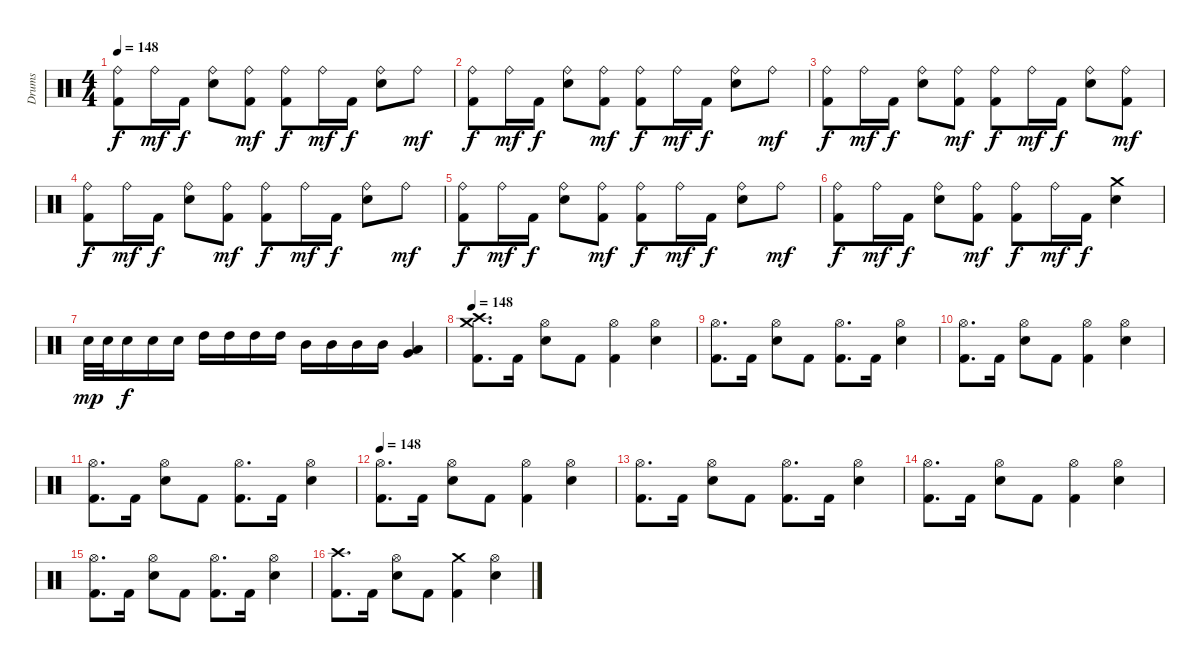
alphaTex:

\track ("Drums" "Drums") {instrument percussion}
\staff {score}
\articulation defaults
\ts (4 4)
\tempo 148
\clef neutral
\ks c
("Ride (bell)" "Kick (hit) 2").8{dy f} "Ride (bell)".16{dy mf} "Kick (hit) 2".16{dy f} ("Ride (bell)" "Snare (hit) 2").8 ("Ride (bell)" "Kick (hit) 2").8{dy mf} ("Ride (bell)" "Kick (hit) 2").8{dy f} "Ride (bell)".16{dy mf} "Kick (hit) 2".16{dy f} ("Ride (bell)" "Snare (hit) 2").8 "Ride (bell)".8{dy mf} |
("Ride (bell)" "Kick (hit) 2").8{dy f} "Ride (bell)".16{dy mf} "Kick (hit) 2".16{dy f} ("Ride (bell)" "Snare (hit) 2").8 ("Ride (bell)" "Kick (hit) 2").8{dy mf} ("Ride (bell)" "Kick (hit) 2").8{dy f} "Ride (bell)".16{dy mf} "Kick (hit) 2".16{dy f} ("Ride (bell)" "Snare (hit) 2").8 "Ride (bell)".8{dy mf} |
("Ride (bell)" "Kick (hit) 2").8{dy f} "Ride (bell)".16{dy mf} "Kick (hit) 2".16{dy f} ("Ride (bell)" "Snare (hit) 2").8 ("Ride (bell)" "Kick (hit) 2").8{dy mf} ("Ride (bell)" "Kick (hit) 2").8{dy f} "Ride (bell)".16{dy mf} "Kick (hit) 2".16{dy f} ("Ride (bell)" "Snare (hit) 2").8 ("Ride (bell)" "Kick (hit) 2").8{dy mf} |
("Ride (bell)" "Kick (hit) 2").8{dy f} "Ride (bell)".16{dy mf} "Kick (hit) 2".16{dy f} ("Ride (bell)" "Snare (hit) 2").8 ("Ride (bell)" "Kick (hit) 2").8{dy mf} ("Ride (bell)" "Kick (hit) 2").8{dy f} "Ride (bell)".16{dy mf} "Kick (hit) 2".16{dy f} ("Ride (bell)" "Snare (hit) 2").8 "Ride (bell)".8{dy mf} |
("Ride (bell)" "Kick (hit) 2").8{dy f} "Ride (bell)".16{dy mf} "Kick (hit) 2".16{dy f} ("Ride (bell)" "Snare (hit) 2").8 ("Ride (bell)" "Kick (hit) 2").8{dy mf} ("Ride (bell)" "Kick (hit) 2").8{dy f} "Ride (bell)".16{dy mf} "Kick (hit) 2".16{dy f} ("Ride (bell)" "Snare (hit) 2").8 "Ride (bell)".8{dy mf} |
("Ride (bell)" "Kick (hit) 2").8{dy f} "Ride (bell)".16{dy mf} "Kick (hit) 2".16{dy f} ("Ride (bell)" "Snare (hit) 2").8 ("Ride (bell)" "Kick (hit) 2").8{dy mf} ("Ride (bell)" "Kick (hit) 2").8{dy f} "Ride (bell)".16{dy mf} "Kick (hit) 2".16{dy f} ("Crash medium (hit)" "Snare (hit) 2").4 |
"Snare (hit) 2".32{dy mp} "Snare (hit) 2".32 "Snare (hit) 2".16{dy f} "Snare (hit) 2".16 "Snare (hit) 2".16 "High Tom (hit)".16 "High Tom (hit)".16 "High Tom (hit)".16 "High Tom (hit)".16 "Mid Tom (hit)".16 "Mid Tom (hit)".16 "Mid Tom (hit)".16 "Mid Tom (hit)".16 ("Low Tom (hit)" "Very Low Tom (hit)").4 |
\tempo 148
("Crash high (hit)" "Crash medium (hit)" "Kick (hit) 2").8{d} "Kick (hit) 2".16 ("Hi-Hat (open)" "Snare (hit) 2").8 "Kick (hit) 2".8 ("Hi-Hat (open)" "Kick (hit) 2").4 ("Hi-Hat (open)" "Snare (hit) 2").4 |
("Hi-Hat (open)" "Kick (hit) 2").8{d} "Kick (hit) 2".16 ("Hi-Hat (open)" "Snare (hit) 2").8 "Kick (hit) 2".8 ("Hi-Hat (open)" "Kick (hit) 2").8{d} "Kick (hit) 2".16 ("Hi-Hat (open)" "Snare (hit) 2").4 |
("Hi-Hat (open)" "Kick (hit) 2").8{d} "Kick (hit) 2".16 ("Hi-Hat (open)" "Snare (hit) 2").8 "Kick (hit) 2".8 ("Hi-Hat (open)" "Kick (hit) 2").4 ("Hi-Hat (open)" "Snare (hit) 2").4 |
("Hi-Hat (open)" "Kick (hit) 2").8{d} "Kick (hit) 2".16 ("Hi-Hat (open)" "Snare (hit) 2").8 "Kick (hit) 2".8 ("Hi-Hat (open)" "Kick (hit) 2").8{d} "Kick (hit) 2".16 ("Hi-Hat (open)" "Snare (hit) 2").4 |
\tempo 148
("Hi-Hat (open)" "Kick (hit) 2").8{d} "Kick (hit) 2".16 ("Hi-Hat (open)" "Snare (hit) 2").8 "Kick (hit) 2".8 ("Hi-Hat (open)" "Kick (hit) 2").4 ("Hi-Hat (open)" "Snare (hit) 2").4 |
("Hi-Hat (open)" "Kick (hit) 2").8{d} "Kick (hit) 2".16 ("Hi-Hat (open)" "Snare (hit) 2").8 "Kick (hit) 2".8 ("Hi-Hat (open)" "Kick (hit) 2").8{d} "Kick (hit) 2".16 ("Hi-Hat (open)" "Snare (hit) 2").4 |
("Hi-Hat (open)" "Kick (hit) 2").8{d} "Kick (hit) 2".16 ("Hi-Hat (open)" "Snare (hit) 2").8 "Kick (hit) 2".8 ("Hi-Hat (open)" "Kick (hit) 2").4 ("Hi-Hat (open)" "Snare (hit) 2").4 |
("Hi-Hat (open)" "Kick (hit) 2").8{d} "Kick (hit) 2".16 ("Hi-Hat (open)" "Snare (hit) 2").8 "Kick (hit) 2".8 ("Hi-Hat (open)" "Kick (hit) 2").8{d} "Kick (hit) 2".16 ("Hi-Hat (open)" "Snare (hit) 2").4 |
("Crash high (hit)" "Kick (hit) 2").8{d} "Kick (hit) 2".16 ("Hi-Hat (open)" "Snare (hit) 2").8 "Kick (hit) 2".8 ("Crash medium (hit)" "Kick (hit) 2").4 ("Hi-Hat (open)" "Snare (hit) 2").4
